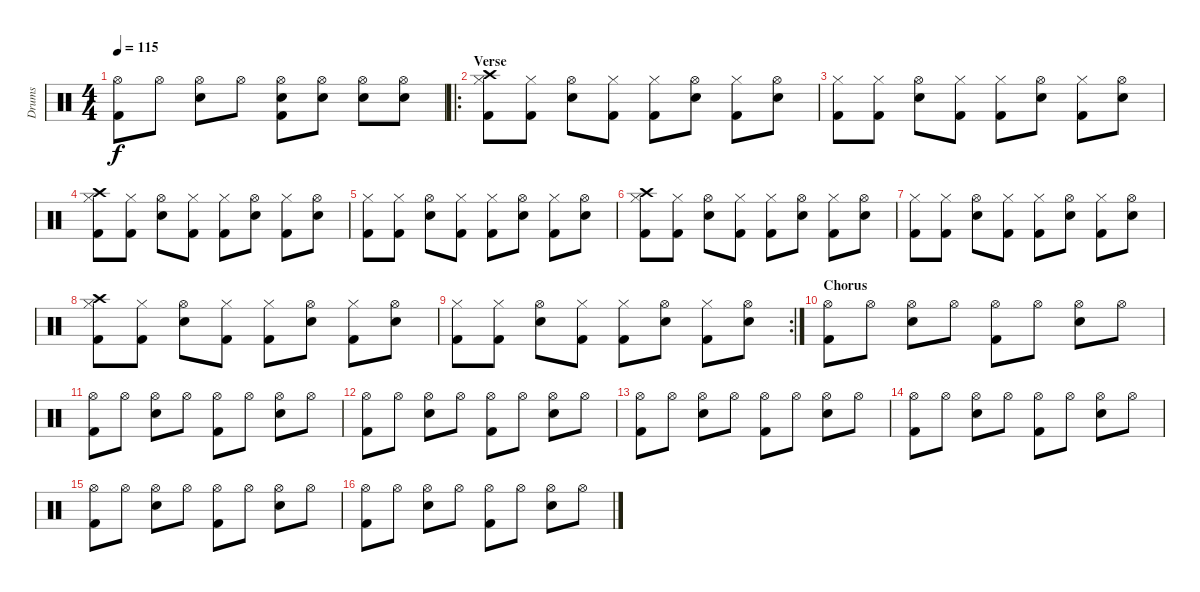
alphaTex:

\track ("Drums" "Drums") {instrument percussion}
\staff {score}
\articulation defaults
\ts (4 4)
\tempo 115
\clef neutral
\ks c
("Hi-Hat (open)" "Kick (hit) 2").8{dy f} "Hi-Hat (open)".8 ("Hi-Hat (open)" "Snare (hit) 2").8 "Hi-Hat (open)".8 ("Hi-Hat (open)" "Snare (hit) 2" "Kick (hit) 2").8 ("Hi-Hat (open)" "Snare (hit) 2").8 ("Hi-Hat (open)" "Snare (hit) 2").8 ("Hi-Hat (open)" "Snare (hit) 2").8 |
\ro
\section ("" "Verse")
("Hi-Hat (closed)" "Crash high (hit)" "Kick (hit) 2").8 ("Hi-Hat (closed)" "Kick (hit) 2").8 ("Hi-Hat (open)" "Snare (hit) 2").8 ("Hi-Hat (closed)" "Kick (hit) 2").8 ("Hi-Hat (closed)" "Kick (hit) 2").8 ("Hi-Hat (open)" "Snare (hit) 2").8 ("Hi-Hat (closed)" "Kick (hit) 2").8 ("Hi-Hat (open)" "Snare (hit) 2").8 |
("Hi-Hat (closed)" "Kick (hit) 2").8 ("Hi-Hat (closed)" "Kick (hit) 2").8 ("Hi-Hat (open)" "Snare (hit) 2").8 ("Hi-Hat (closed)" "Kick (hit) 2").8 ("Hi-Hat (closed)" "Kick (hit) 2").8 ("Hi-Hat (open)" "Snare (hit) 2").8 ("Hi-Hat (closed)" "Kick (hit) 2").8 ("Hi-Hat (open)" "Snare (hit) 2").8 |
("Hi-Hat (closed)" "Crash high (hit)" "Kick (hit) 2").8 ("Hi-Hat (closed)" "Kick (hit) 2").8 ("Hi-Hat (open)" "Snare (hit) 2").8 ("Hi-Hat (closed)" "Kick (hit) 2").8 ("Hi-Hat (closed)" "Kick (hit) 2").8 ("Hi-Hat (open)" "Snare (hit) 2").8 ("Hi-Hat (closed)" "Kick (hit) 2").8 ("Hi-Hat (open)" "Snare (hit) 2").8 |
("Hi-Hat (closed)" "Kick (hit) 2").8 ("Hi-Hat (closed)" "Kick (hit) 2").8 ("Hi-Hat (open)" "Snare (hit) 2").8 ("Hi-Hat (closed)" "Kick (hit) 2").8 ("Hi-Hat (closed)" "Kick (hit) 2").8 ("Hi-Hat (open)" "Snare (hit) 2").8 ("Hi-Hat (closed)" "Kick (hit) 2").8 ("Hi-Hat (open)" "Snare (hit) 2").8 |
("Hi-Hat (closed)" "Crash high (hit)" "Kick (hit) 2").8 ("Hi-Hat (closed)" "Kick (hit) 2").8 ("Hi-Hat (open)" "Snare (hit) 2").8 ("Hi-Hat (closed)" "Kick (hit) 2").8 ("Hi-Hat (closed)" "Kick (hit) 2").8 ("Hi-Hat (open)" "Snare (hit) 2").8 ("Hi-Hat (closed)" "Kick (hit) 2").8 ("Hi-Hat (open)" "Snare (hit) 2").8 |
("Hi-Hat (closed)" "Kick (hit) 2").8 ("Hi-Hat (closed)" "Kick (hit) 2").8 ("Hi-Hat (open)" "Snare (hit) 2").8 ("Hi-Hat (closed)" "Kick (hit) 2").8 ("Hi-Hat (closed)" "Kick (hit) 2").8 ("Hi-Hat (open)" "Snare (hit) 2").8 ("Hi-Hat (closed)" "Kick (hit) 2").8 ("Hi-Hat (open)" "Snare (hit) 2").8 |
("Hi-Hat (closed)" "Crash high (hit)" "Kick (hit) 2").8 ("Hi-Hat (closed)" "Kick (hit) 2").8 ("Hi-Hat (open)" "Snare (hit) 2").8 ("Hi-Hat (closed)" "Kick (hit) 2").8 ("Hi-Hat (closed)" "Kick (hit) 2").8 ("Hi-Hat (open)" "Snare (hit) 2").8 ("Hi-Hat (closed)" "Kick (hit) 2").8 ("Hi-Hat (open)" "Snare (hit) 2").8 |
\rc 2
("Hi-Hat (closed)" "Kick (hit) 2").8 ("Hi-Hat (closed)" "Kick (hit) 2").8 ("Hi-Hat (open)" "Snare (hit) 2").8 ("Hi-Hat (closed)" "Kick (hit) 2").8 ("Hi-Hat (closed)" "Kick (hit) 2").8 ("Hi-Hat (open)" "Snare (hit) 2").8 ("Hi-Hat (closed)" "Kick (hit) 2").8 ("Hi-Hat (open)" "Snare (hit) 2").8 |
\section ("" "Chorus")
("Hi-Hat (open)" "Kick (hit) 2").8 "Hi-Hat (open)".8 ("Hi-Hat (open)" "Snare (hit) 2").8 "Hi-Hat (open)".8 ("Hi-Hat (open)" "Kick (hit) 2").8 "Hi-Hat (open)".8 ("Hi-Hat (open)" "Snare (hit) 2").8 "Hi-Hat (open)".8 |
("Hi-Hat (open)" "Kick (hit) 2").8 "Hi-Hat (open)".8 ("Hi-Hat (open)" "Snare (hit) 2").8 "Hi-Hat (open)".8 ("Hi-Hat (open)" "Kick (hit) 2").8 "Hi-Hat (open)".8 ("Hi-Hat (open)" "Snare (hit) 2").8 "Hi-Hat (open)".8 |
("Hi-Hat (open)" "Kick (hit) 2").8 "Hi-Hat (open)".8 ("Hi-Hat (open)" "Snare (hit) 2").8 "Hi-Hat (open)".8 ("Hi-Hat (open)" "Kick (hit) 2").8 "Hi-Hat (open)".8 ("Hi-Hat (open)" "Snare (hit) 2").8 "Hi-Hat (open)".8 |
("Hi-Hat (open)" "Kick (hit) 2").8 "Hi-Hat (open)".8 ("Hi-Hat (open)" "Snare (hit) 2").8 "Hi-Hat (open)".8 ("Hi-Hat (open)" "Kick (hit) 2").8 "Hi-Hat (open)".8 ("Hi-Hat (open)" "Snare (hit) 2").8 "Hi-Hat (open)".8 |
("Hi-Hat (open)" "Kick (hit) 2").8 "Hi-Hat (open)".8 ("Hi-Hat (open)" "Snare (hit) 2").8 "Hi-Hat (open)".8 ("Hi-Hat (open)" "Kick (hit) 2").8 "Hi-Hat (open)".8 ("Hi-Hat (open)" "Snare (hit) 2").8 "Hi-Hat (open)".8 |
("Hi-Hat (open)" "Kick (hit) 2").8 "Hi-Hat (open)".8 ("Hi-Hat (open)" "Snare (hit) 2").8 "Hi-Hat (open)".8 ("Hi-Hat (open)" "Kick (hit) 2").8 "Hi-Hat (open)".8 ("Hi-Hat (open)" "Snare (hit) 2").8 "Hi-Hat (open)".8 |
("Hi-Hat (open)" "Kick (hit) 2").8 "Hi-Hat (open)".8 ("Hi-Hat (open)" "Snare (hit) 2").8 "Hi-Hat (open)".8 ("Hi-Hat (open)" "Kick (hit) 2").8 "Hi-Hat (open)".8 ("Hi-Hat (open)" "Snare (hit) 2").8 "Hi-Hat (open)".8
